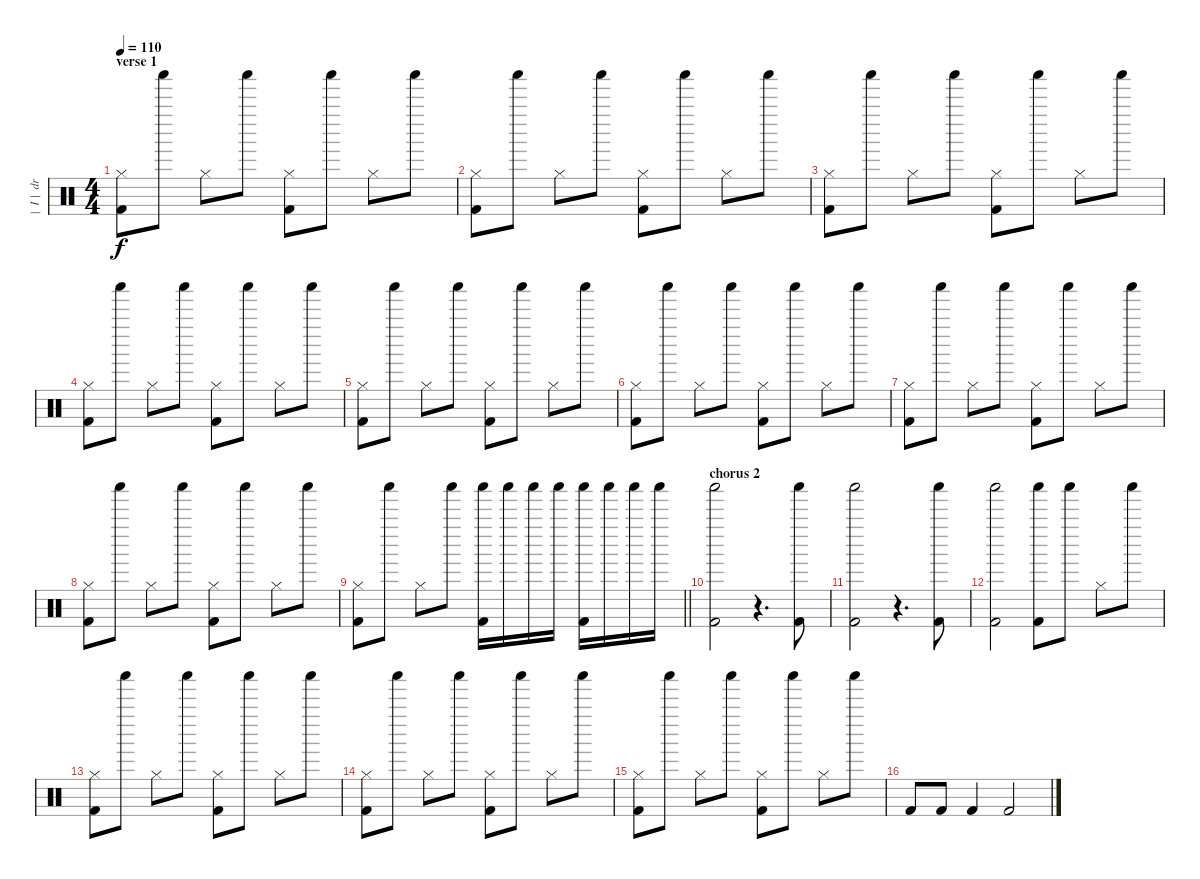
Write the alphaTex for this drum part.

\track ("|  I |  drum" "|  I |  dr") {instrument percussion}
\staff {score}
\articulation defaults
\ts (4 4)
\section ("" "verse 1")
\tempo 110
\clef neutral
\ks c
("Kick (hit) 2" "Hi-Hat (closed)").8{dy f} "Shaker (hit)".8 "Hi-Hat (closed)".8 "Shaker (hit)".8 ("Kick (hit) 2" "Hi-Hat (closed)").8 "Shaker (hit)".8 "Hi-Hat (closed)".8 "Shaker (hit)".8 |
("Kick (hit) 2" "Hi-Hat (closed)").8 "Shaker (hit)".8 "Hi-Hat (closed)".8 "Shaker (hit)".8 ("Kick (hit) 2" "Hi-Hat (closed)").8 "Shaker (hit)".8 "Hi-Hat (closed)".8 "Shaker (hit)".8 |
("Kick (hit) 2" "Hi-Hat (closed)").8 "Shaker (hit)".8 "Hi-Hat (closed)".8 "Shaker (hit)".8 ("Kick (hit) 2" "Hi-Hat (closed)").8 "Shaker (hit)".8 "Hi-Hat (closed)".8 "Shaker (hit)".8 |
("Kick (hit) 2" "Hi-Hat (closed)").8 "Shaker (hit)".8 "Hi-Hat (closed)".8 "Shaker (hit)".8 ("Kick (hit) 2" "Hi-Hat (closed)").8 "Shaker (hit)".8 "Hi-Hat (closed)".8 "Shaker (hit)".8 |
("Kick (hit) 2" "Hi-Hat (closed)").8 "Shaker (hit)".8 "Hi-Hat (closed)".8 "Shaker (hit)".8 ("Kick (hit) 2" "Hi-Hat (closed)").8 "Shaker (hit)".8 "Hi-Hat (closed)".8 "Shaker (hit)".8 |
("Kick (hit) 2" "Hi-Hat (closed)").8 "Shaker (hit)".8 "Hi-Hat (closed)".8 "Shaker (hit)".8 ("Kick (hit) 2" "Hi-Hat (closed)").8 "Shaker (hit)".8 "Hi-Hat (closed)".8 "Shaker (hit)".8 |
("Kick (hit) 2" "Hi-Hat (closed)").8 "Shaker (hit)".8 "Hi-Hat (closed)".8 "Shaker (hit)".8 ("Kick (hit) 2" "Hi-Hat (closed)").8 "Shaker (hit)".8 "Hi-Hat (closed)".8 "Shaker (hit)".8 |
("Kick (hit) 2" "Hi-Hat (closed)").8 "Shaker (hit)".8 "Hi-Hat (closed)".8 "Shaker (hit)".8 ("Kick (hit) 2" "Hi-Hat (closed)").8 "Shaker (hit)".8 "Hi-Hat (closed)".8 "Shaker (hit)".8 |
\barLineRight lightlight
("Kick (hit) 2" "Hi-Hat (closed)").8 "Shaker (hit)".8 "Hi-Hat (closed)".8 "Shaker (hit)".8 ("Kick (hit) 2" "Shaker (hit)").16 "Shaker (hit)".16 "Shaker (hit)".16 "Shaker (hit)".16 ("Kick (hit) 2" "Shaker (hit)").16 "Shaker (hit)".16 "Shaker (hit)".16 "Shaker (hit)".16 |
\section ("" "chorus 2")
("Kick (hit) 2" "Shaker (hit)").2 r.4{d} ("Kick (hit) 2" "Shaker (hit)").8 |
("Kick (hit) 2" "Shaker (hit)").2 r.4{d} ("Kick (hit) 2" "Shaker (hit)").8 |
("Kick (hit) 2" "Shaker (hit)").2 ("Kick (hit) 2" "Shaker (hit)").8 "Shaker (hit)".8 "Hi-Hat (closed)".8 "Shaker (hit)".8 |
("Kick (hit) 2" "Hi-Hat (closed)").8 "Shaker (hit)".8 "Hi-Hat (closed)".8 "Shaker (hit)".8 ("Kick (hit) 2" "Hi-Hat (closed)").8 "Shaker (hit)".8 "Hi-Hat (closed)".8 "Shaker (hit)".8 |
("Kick (hit) 2" "Hi-Hat (closed)").8 "Shaker (hit)".8 "Hi-Hat (closed)".8 "Shaker (hit)".8 ("Kick (hit) 2" "Hi-Hat (closed)").8 "Shaker (hit)".8 "Hi-Hat (closed)".8 "Shaker (hit)".8 |
("Kick (hit) 2" "Hi-Hat (closed)").8 "Shaker (hit)".8 "Hi-Hat (closed)".8 "Shaker (hit)".8 ("Kick (hit) 2" "Hi-Hat (closed)").8 "Shaker (hit)".8 "Hi-Hat (closed)".8 "Shaker (hit)".8 |
"Kick (hit) 2".8 "Kick (hit) 2".8 "Kick (hit) 2".4 "Kick (hit) 2".2
